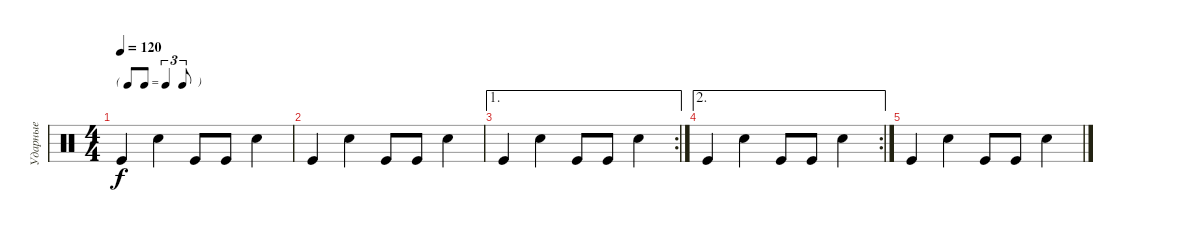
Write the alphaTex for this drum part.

\track ("Ударные" "Ударные") {instrument percussion}
\staff {score}
\articulation defaults
\ts (4 4)
\tf triplet8th
\tempo 120
\clef neutral
\ks c "Kick (hit)".4{dy f} "Snare (hit) 2".4 "Kick (hit)".8 "Kick (hit)".8 "Snare (hit) 2".4
|
"Kick (hit)".4 "Snare (hit) 2".4 "Kick (hit)".8 "Kick (hit)".8 "Snare (hit) 2".4 |
\ae 1
\rc 2 "Kick (hit)".4 "Snare (hit) 2".4 "Kick (hit)".8 "Kick (hit)".8 "Snare (hit) 2".4
|
\ae 2
\rc 2 "Kick (hit)".4 "Snare (hit) 2".4 "Kick (hit)".8 "Kick (hit)".8 "Snare (hit) 2".4
|
"Kick (hit)".4 "Snare (hit) 2".4 "Kick (hit)".8 "Kick (hit)".8 "Snare (hit) 2".4
